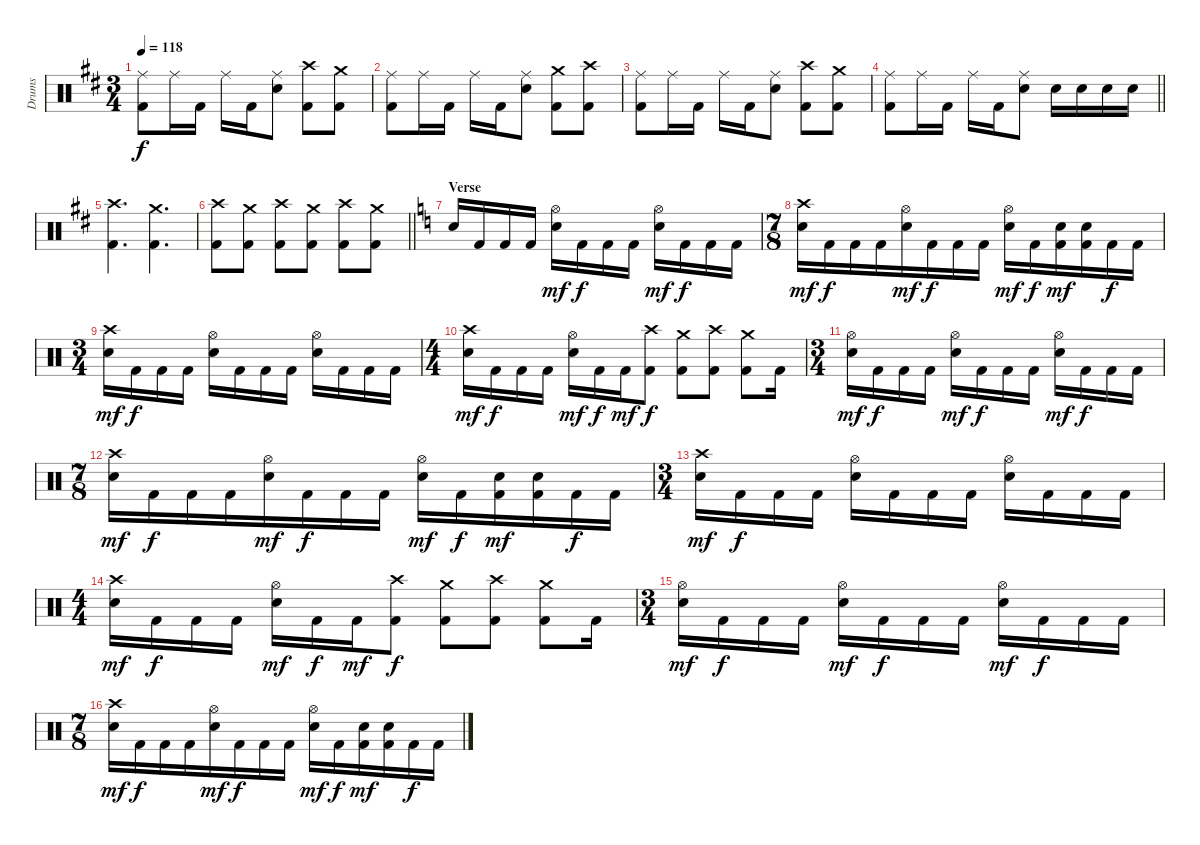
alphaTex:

\track ("Drums" "Drums") {instrument percussion}
\staff {score}
\articulation defaults
\ts (3 4)
\tempo 118
\clef neutral
\ks bminor
("Ride (middle)" "Kick (hit) 2").8{dy f} "Ride (middle)".16 "Kick (hit) 2".16 "Ride (middle)".16 "Kick (hit) 2".16 ("Ride (middle)" "Snare (hit) 2").8 ("Crash high (hit)" "Kick (hit) 2").8 ("Crash medium (hit)" "Kick (hit) 2").8 |
("Ride (middle)" "Kick (hit) 2").8 "Ride (middle)".16 "Kick (hit) 2".16 "Ride (middle)".16 "Kick (hit) 2".16 ("Ride (middle)" "Snare (hit) 2").8 ("Crash medium (hit)" "Kick (hit) 2").8 ("Crash high (hit)" "Kick (hit) 2").8 |
("Ride (middle)" "Kick (hit) 2").8 "Ride (middle)".16 "Kick (hit) 2".16 "Ride (middle)".16 "Kick (hit) 2".16 ("Ride (middle)" "Snare (hit) 2").8 ("Crash high (hit)" "Kick (hit) 2").8 ("Crash medium (hit)" "Kick (hit) 2").8 |
\barLineRight lightlight
("Ride (middle)" "Kick (hit) 2").8 "Ride (middle)".16 "Kick (hit) 2".16 "Ride (middle)".16 "Kick (hit) 2".16 ("Ride (middle)" "Snare (hit) 2").8 "Snare (hit) 2".16 "Snare (hit) 2".16 "Snare (hit) 2".16 "Snare (hit) 2".16 |
("Crash high (hit)" "Kick (hit) 2").4{d} ("Crash medium (hit)" "Kick (hit) 2").4{d} |
\barLineRight lightlight
("Crash high (hit)" "Kick (hit) 2").8 ("Crash medium (hit)" "Kick (hit) 2").8 ("Crash high (hit)" "Kick (hit) 2").8 ("Crash medium (hit)" "Kick (hit) 2").8 ("Crash high (hit)" "Kick (hit) 2").8 ("Crash medium (hit)" "Kick (hit) 2").8 |
\section ("" "Verse")
\ks aminor "Snare (hit) 2".16 "Kick (hit) 2".16 "Kick (hit) 2".16 "Kick (hit) 2".16
("Hi-Hat (open)" "Snare (hit) 2").16{dy mf} "Kick (hit) 2".16{dy f} "Kick (hit) 2".16 "Kick (hit) 2".16 ("Hi-Hat (open)" "Snare (hit) 2").16{dy mf} "Kick (hit) 2".16{dy f} "Kick (hit) 2".16 "Kick (hit) 2".16 |
\ts (7 8)
("Crash high (hit)" "Snare (hit) 2").16{dy mf} "Kick (hit) 2".16{dy f} "Kick (hit) 2".16 "Kick (hit) 2".16 ("Hi-Hat (open)" "Snare (hit) 2").16{dy mf} "Kick (hit) 2".16{dy f} "Kick (hit) 2".16 "Kick (hit) 2".16 ("Hi-Hat (open)" "Snare (hit) 2").16{dy mf} "Kick (hit) 2".16{dy f} ("Snare (hit) 2" "Kick (hit) 2").16{dy mf} ("Snare (hit) 2" "Kick (hit) 2").16 "Kick (hit) 2".16{dy f} "Kick (hit) 2".16 |
\ts (3 4)
("Crash high (hit)" "Snare (hit) 2").16{dy mf} "Kick (hit) 2".16{dy f} "Kick (hit) 2".16 "Kick (hit) 2".16 ("Hi-Hat (open)" "Snare (hit) 2").16 "Kick (hit) 2".16 "Kick (hit) 2".16 "Kick (hit) 2".16 ("Hi-Hat (open)" "Snare (hit) 2").16 "Kick (hit) 2".16 "Kick (hit) 2".16 "Kick (hit) 2".16 |
\ts (4 4)
("Crash high (hit)" "Snare (hit) 2").16{dy mf} "Kick (hit) 2".16{dy f} "Kick (hit) 2".16 "Kick (hit) 2".16 ("Hi-Hat (open)" "Snare (hit) 2").16{dy mf} "Kick (hit) 2".16{dy f} "Kick (hit) 2".16{dy mf} ("Crash high (hit)" "Kick (hit) 2").8{dy f} ("Crash medium (hit)" "Kick (hit) 2").8 ("Crash high (hit)" "Kick (hit) 2").8 ("Crash medium (hit)" "Kick (hit) 2").8 "Kick (hit) 2".16 |
\ts (3 4)
("Hi-Hat (open)" "Snare (hit) 2").16{dy mf} "Kick (hit) 2".16{dy f} "Kick (hit) 2".16 "Kick (hit) 2".16 ("Hi-Hat (open)" "Snare (hit) 2").16{dy mf} "Kick (hit) 2".16{dy f} "Kick (hit) 2".16 "Kick (hit) 2".16 ("Hi-Hat (open)" "Snare (hit) 2").16{dy mf} "Kick (hit) 2".16{dy f} "Kick (hit) 2".16 "Kick (hit) 2".16 |
\ts (7 8)
("Crash high (hit)" "Snare (hit) 2").16{dy mf} "Kick (hit) 2".16{dy f} "Kick (hit) 2".16 "Kick (hit) 2".16 ("Hi-Hat (open)" "Snare (hit) 2").16{dy mf} "Kick (hit) 2".16{dy f} "Kick (hit) 2".16 "Kick (hit) 2".16 ("Hi-Hat (open)" "Snare (hit) 2").16{dy mf} "Kick (hit) 2".16{dy f} ("Snare (hit) 2" "Kick (hit) 2").16{dy mf} ("Snare (hit) 2" "Kick (hit) 2").16 "Kick (hit) 2".16{dy f} "Kick (hit) 2".16 |
\ts (3 4)
("Crash high (hit)" "Snare (hit) 2").16{dy mf} "Kick (hit) 2".16{dy f} "Kick (hit) 2".16 "Kick (hit) 2".16 ("Hi-Hat (open)" "Snare (hit) 2").16 "Kick (hit) 2".16 "Kick (hit) 2".16 "Kick (hit) 2".16 ("Hi-Hat (open)" "Snare (hit) 2").16 "Kick (hit) 2".16 "Kick (hit) 2".16 "Kick (hit) 2".16 |
\ts (4 4)
("Crash high (hit)" "Snare (hit) 2").16{dy mf} "Kick (hit) 2".16{dy f} "Kick (hit) 2".16 "Kick (hit) 2".16 ("Hi-Hat (open)" "Snare (hit) 2").16{dy mf} "Kick (hit) 2".16{dy f} "Kick (hit) 2".16{dy mf} ("Crash high (hit)" "Kick (hit) 2").8{dy f} ("Crash medium (hit)" "Kick (hit) 2").8 ("Crash high (hit)" "Kick (hit) 2").8 ("Crash medium (hit)" "Kick (hit) 2").8 "Kick (hit) 2".16 |
\ts (3 4)
("Hi-Hat (open)" "Snare (hit) 2").16{dy mf} "Kick (hit) 2".16{dy f} "Kick (hit) 2".16 "Kick (hit) 2".16 ("Hi-Hat (open)" "Snare (hit) 2").16{dy mf} "Kick (hit) 2".16{dy f} "Kick (hit) 2".16 "Kick (hit) 2".16 ("Hi-Hat (open)" "Snare (hit) 2").16{dy mf} "Kick (hit) 2".16{dy f} "Kick (hit) 2".16 "Kick (hit) 2".16 |
\ts (7 8)
("Crash high (hit)" "Snare (hit) 2").16{dy mf} "Kick (hit) 2".16{dy f} "Kick (hit) 2".16 "Kick (hit) 2".16 ("Hi-Hat (open)" "Snare (hit) 2").16{dy mf} "Kick (hit) 2".16{dy f} "Kick (hit) 2".16 "Kick (hit) 2".16 ("Hi-Hat (open)" "Snare (hit) 2").16{dy mf} "Kick (hit) 2".16{dy f} ("Snare (hit) 2" "Kick (hit) 2").16{dy mf} ("Snare (hit) 2" "Kick (hit) 2").16 "Kick (hit) 2".16{dy f} "Kick (hit) 2".16
